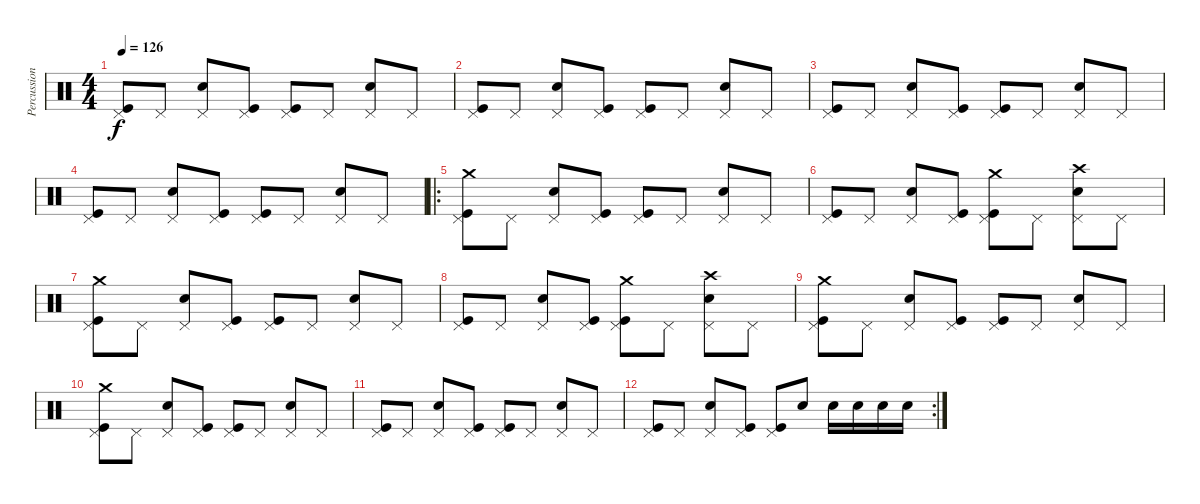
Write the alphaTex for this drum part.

\track ("Percussion" "Percussion") {instrument percussion}
\staff {score}
\articulation defaults
\ts (4 4)
\tempo 126
\clef neutral
\ks c
("Pedal Hi-Hat (hit)" "Kick (hit)").8{dy f} "Pedal Hi-Hat (hit)".8 ("Pedal Hi-Hat (hit)" "Snare (hit) 2").8 ("Pedal Hi-Hat (hit)" "Kick (hit)").8 ("Pedal Hi-Hat (hit)" "Kick (hit)").8 "Pedal Hi-Hat (hit)".8 ("Pedal Hi-Hat (hit)" "Snare (hit) 2").8 "Pedal Hi-Hat (hit)".8 |
("Pedal Hi-Hat (hit)" "Kick (hit)").8 "Pedal Hi-Hat (hit)".8 ("Pedal Hi-Hat (hit)" "Snare (hit) 2").8 ("Pedal Hi-Hat (hit)" "Kick (hit)").8 ("Pedal Hi-Hat (hit)" "Kick (hit)").8 "Pedal Hi-Hat (hit)".8 ("Pedal Hi-Hat (hit)" "Snare (hit) 2").8 "Pedal Hi-Hat (hit)".8 |
("Pedal Hi-Hat (hit)" "Kick (hit)").8 "Pedal Hi-Hat (hit)".8 ("Pedal Hi-Hat (hit)" "Snare (hit) 2").8 ("Pedal Hi-Hat (hit)" "Kick (hit)").8 ("Pedal Hi-Hat (hit)" "Kick (hit)").8 "Pedal Hi-Hat (hit)".8 ("Pedal Hi-Hat (hit)" "Snare (hit) 2").8 "Pedal Hi-Hat (hit)".8 |
("Pedal Hi-Hat (hit)" "Kick (hit)").8 "Pedal Hi-Hat (hit)".8 ("Pedal Hi-Hat (hit)" "Snare (hit) 2").8 ("Pedal Hi-Hat (hit)" "Kick (hit)").8 ("Pedal Hi-Hat (hit)" "Kick (hit)").8 "Pedal Hi-Hat (hit)".8 ("Pedal Hi-Hat (hit)" "Snare (hit) 2").8 "Pedal Hi-Hat (hit)".8 |
\ro
("Crash medium (hit)" "Pedal Hi-Hat (hit)" "Kick (hit)").8 "Pedal Hi-Hat (hit)".8 ("Pedal Hi-Hat (hit)" "Snare (hit) 2").8 ("Pedal Hi-Hat (hit)" "Kick (hit)").8 ("Pedal Hi-Hat (hit)" "Kick (hit)").8 "Pedal Hi-Hat (hit)".8 ("Pedal Hi-Hat (hit)" "Snare (hit) 2").8 "Pedal Hi-Hat (hit)".8 |
("Pedal Hi-Hat (hit)" "Kick (hit)").8 "Pedal Hi-Hat (hit)".8 ("Pedal Hi-Hat (hit)" "Snare (hit) 2").8 ("Pedal Hi-Hat (hit)" "Kick (hit)").8 ("Crash medium (hit)" "Pedal Hi-Hat (hit)" "Kick (hit)").8 "Pedal Hi-Hat (hit)".8 ("Crash high (hit)" "Pedal Hi-Hat (hit)" "Snare (hit) 2").8 "Pedal Hi-Hat (hit)".8 |
("Crash medium (hit)" "Pedal Hi-Hat (hit)" "Kick (hit)").8 "Pedal Hi-Hat (hit)".8 ("Pedal Hi-Hat (hit)" "Snare (hit) 2").8 ("Pedal Hi-Hat (hit)" "Kick (hit)").8 ("Pedal Hi-Hat (hit)" "Kick (hit)").8 "Pedal Hi-Hat (hit)".8 ("Pedal Hi-Hat (hit)" "Snare (hit) 2").8 "Pedal Hi-Hat (hit)".8 |
("Pedal Hi-Hat (hit)" "Kick (hit)").8 "Pedal Hi-Hat (hit)".8 ("Pedal Hi-Hat (hit)" "Snare (hit) 2").8 ("Pedal Hi-Hat (hit)" "Kick (hit)").8 ("Crash medium (hit)" "Pedal Hi-Hat (hit)" "Kick (hit)").8 "Pedal Hi-Hat (hit)".8 ("Crash high (hit)" "Pedal Hi-Hat (hit)" "Snare (hit) 2").8 "Pedal Hi-Hat (hit)".8 |
("Crash medium (hit)" "Pedal Hi-Hat (hit)" "Kick (hit)").8 "Pedal Hi-Hat (hit)".8 ("Pedal Hi-Hat (hit)" "Snare (hit) 2").8 ("Pedal Hi-Hat (hit)" "Kick (hit)").8 ("Pedal Hi-Hat (hit)" "Kick (hit)").8 "Pedal Hi-Hat (hit)".8 ("Pedal Hi-Hat (hit)" "Snare (hit) 2").8 "Pedal Hi-Hat (hit)".8 |
("Crash medium (hit)" "Pedal Hi-Hat (hit)" "Kick (hit)").8 "Pedal Hi-Hat (hit)".8 ("Pedal Hi-Hat (hit)" "Snare (hit) 2").8 ("Pedal Hi-Hat (hit)" "Kick (hit)").8 ("Pedal Hi-Hat (hit)" "Kick (hit)").8 "Pedal Hi-Hat (hit)".8 ("Pedal Hi-Hat (hit)" "Snare (hit) 2").8 "Pedal Hi-Hat (hit)".8 |
("Pedal Hi-Hat (hit)" "Kick (hit)").8 "Pedal Hi-Hat (hit)".8 ("Pedal Hi-Hat (hit)" "Snare (hit) 2").8 ("Pedal Hi-Hat (hit)" "Kick (hit)").8 ("Pedal Hi-Hat (hit)" "Kick (hit)").8 "Pedal Hi-Hat (hit)".8 ("Pedal Hi-Hat (hit)" "Snare (hit) 2").8 "Pedal Hi-Hat (hit)".8 |
\rc 2
("Pedal Hi-Hat (hit)" "Kick (hit)").8 "Pedal Hi-Hat (hit)".8 ("Pedal Hi-Hat (hit)" "Snare (hit) 2").8 ("Pedal Hi-Hat (hit)" "Kick (hit)").8 ("Pedal Hi-Hat (hit)" "Kick (hit)").8 "Snare (hit) 2".8 "Snare (hit) 2".16 "Snare (hit) 2".16 "Snare (hit) 2".16 "Snare (hit) 2".16
